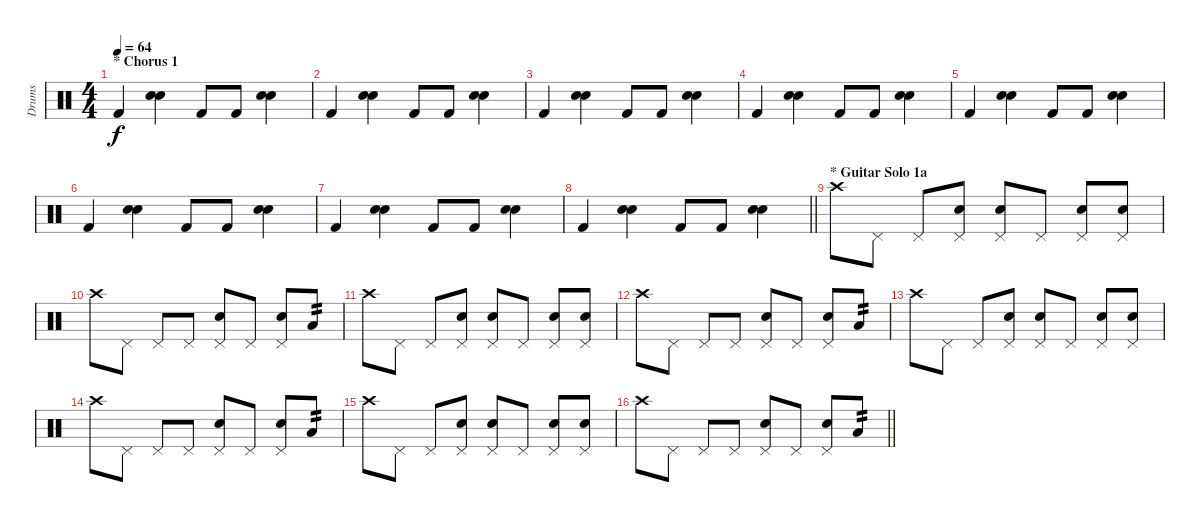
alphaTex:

\track ("Drums" "Drums") {instrument percussion}
\staff {score}
\articulation defaults
\ts (4 4)
\section ("" "* Chorus 1")
\tempo 64
\clef neutral
\ks c "Kick (hit) 2".4{dy f}
("Snare (hit) 2" "Electric Snare (hit)").4 "Kick (hit) 2".8 "Kick (hit) 2".8 ("Snare (hit) 2" "Electric Snare (hit)").4 |
"Kick (hit) 2".4 ("Snare (hit) 2" "Electric Snare (hit)").4 "Kick (hit) 2".8 "Kick (hit) 2".8 ("Snare (hit) 2" "Electric Snare (hit)").4 |
"Kick (hit) 2".4 ("Snare (hit) 2" "Electric Snare (hit)").4 "Kick (hit) 2".8 "Kick (hit) 2".8 ("Snare (hit) 2" "Electric Snare (hit)").4 |
"Kick (hit) 2".4 ("Snare (hit) 2" "Electric Snare (hit)").4 "Kick (hit) 2".8 "Kick (hit) 2".8 ("Snare (hit) 2" "Electric Snare (hit)").4 |
"Kick (hit) 2".4 ("Snare (hit) 2" "Electric Snare (hit)").4 "Kick (hit) 2".8 "Kick (hit) 2".8 ("Snare (hit) 2" "Electric Snare (hit)").4 |
"Kick (hit) 2".4 ("Snare (hit) 2" "Electric Snare (hit)").4 "Kick (hit) 2".8 "Kick (hit) 2".8 ("Snare (hit) 2" "Electric Snare (hit)").4 |
"Kick (hit) 2".4 ("Snare (hit) 2" "Electric Snare (hit)").4 "Kick (hit) 2".8 "Kick (hit) 2".8 ("Snare (hit) 2" "Electric Snare (hit)").4 |
\barLineRight lightlight "Kick (hit) 2".4
("Snare (hit) 2" "Electric Snare (hit)").4 "Kick (hit) 2".8 "Kick (hit) 2".8 ("Snare (hit) 2" "Electric Snare (hit)").4 |
\section ("" "* Guitar Solo 1a")
"Crash high (hit)".8 "Pedal Hi-Hat (hit)".8 "Pedal Hi-Hat (hit)".8 ("Pedal Hi-Hat (hit)" "Electric Snare (hit)").8 ("Pedal Hi-Hat (hit)" "Electric Snare (hit)").8 "Pedal Hi-Hat (hit)".8 ("Pedal Hi-Hat (hit)" "Electric Snare (hit)").8 ("Pedal Hi-Hat (hit)" "Electric Snare (hit)").8 |
"Crash high (hit)".8 "Pedal Hi-Hat (hit)".8 "Pedal Hi-Hat (hit)".8 "Pedal Hi-Hat (hit)".8 ("Pedal Hi-Hat (hit)" "Electric Snare (hit)").8 "Pedal Hi-Hat (hit)".8 ("Pedal Hi-Hat (hit)" "Electric Snare (hit)").8 "Low Tom (hit)".8{tp 2} |
"Crash high (hit)".8 "Pedal Hi-Hat (hit)".8 "Pedal Hi-Hat (hit)".8 ("Pedal Hi-Hat (hit)" "Electric Snare (hit)").8 ("Pedal Hi-Hat (hit)" "Electric Snare (hit)").8 "Pedal Hi-Hat (hit)".8 ("Pedal Hi-Hat (hit)" "Electric Snare (hit)").8 ("Pedal Hi-Hat (hit)" "Electric Snare (hit)").8 |
"Crash high (hit)".8 "Pedal Hi-Hat (hit)".8 "Pedal Hi-Hat (hit)".8 "Pedal Hi-Hat (hit)".8 ("Pedal Hi-Hat (hit)" "Electric Snare (hit)").8 "Pedal Hi-Hat (hit)".8 ("Pedal Hi-Hat (hit)" "Electric Snare (hit)").8 "Low Tom (hit)".8{tp 2} |
"Crash high (hit)".8 "Pedal Hi-Hat (hit)".8 "Pedal Hi-Hat (hit)".8 ("Pedal Hi-Hat (hit)" "Electric Snare (hit)").8 ("Pedal Hi-Hat (hit)" "Electric Snare (hit)").8 "Pedal Hi-Hat (hit)".8 ("Pedal Hi-Hat (hit)" "Electric Snare (hit)").8 ("Pedal Hi-Hat (hit)" "Electric Snare (hit)").8 |
"Crash high (hit)".8 "Pedal Hi-Hat (hit)".8 "Pedal Hi-Hat (hit)".8 "Pedal Hi-Hat (hit)".8 ("Pedal Hi-Hat (hit)" "Electric Snare (hit)").8 "Pedal Hi-Hat (hit)".8 ("Pedal Hi-Hat (hit)" "Electric Snare (hit)").8 "Low Tom (hit)".8{tp 2} |
"Crash high (hit)".8 "Pedal Hi-Hat (hit)".8 "Pedal Hi-Hat (hit)".8 ("Pedal Hi-Hat (hit)" "Electric Snare (hit)").8 ("Pedal Hi-Hat (hit)" "Electric Snare (hit)").8 "Pedal Hi-Hat (hit)".8 ("Pedal Hi-Hat (hit)" "Electric Snare (hit)").8 ("Pedal Hi-Hat (hit)" "Electric Snare (hit)").8 |
\barLineRight lightlight "Crash high (hit)".8 "Pedal Hi-Hat (hit)".8 "Pedal Hi-Hat (hit)".8 "Pedal Hi-Hat (hit)".8
("Pedal Hi-Hat (hit)" "Electric Snare (hit)").8 "Pedal Hi-Hat (hit)".8 ("Pedal Hi-Hat (hit)" "Electric Snare (hit)").8 "Low Tom (hit)".8{tp 2}
